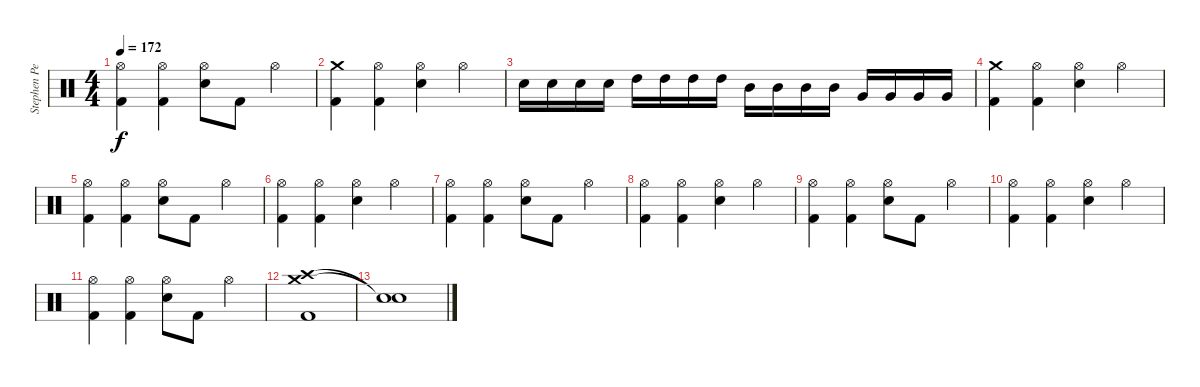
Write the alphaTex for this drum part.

\track ("Stephen Perkins" "Stephen Pe") {instrument percussion}
\staff {score}
\articulation defaults
\ts (4 4)
\tempo 172
\clef neutral
\ks c
("Hi-Hat (open)" "Kick (hit) 2").4{dy f} ("Hi-Hat (open)" "Kick (hit) 2").4 ("Hi-Hat (open)" "Snare (hit) 2").8 "Kick (hit) 2".8 "Hi-Hat (open)".4 |
("Crash medium (hit)" "Kick (hit) 2").4 ("Hi-Hat (open)" "Kick (hit) 2").4 ("Hi-Hat (open)" "Snare (hit) 2").4 "Hi-Hat (open)".4 |
"Snare (hit) 2".16 "Snare (hit) 2".16 "Snare (hit) 2".16 "Snare (hit) 2".16 "High Tom (hit)".16 "High Tom (hit)".16 "High Tom (hit)".16 "High Tom (hit)".16 "Mid Tom (hit)".16 "Mid Tom (hit)".16 "Mid Tom (hit)".16 "Mid Tom (hit)".16 "Very Low Tom (hit)".16 "Very Low Tom (hit)".16 "Very Low Tom (hit)".16 "Very Low Tom (hit)".16 |
("Crash medium (hit)" "Kick (hit) 2").4 ("Hi-Hat (open)" "Kick (hit) 2").4 ("Hi-Hat (open)" "Snare (hit) 2").4 "Hi-Hat (open)".4 |
("Hi-Hat (open)" "Kick (hit) 2").4 ("Hi-Hat (open)" "Kick (hit) 2").4 ("Hi-Hat (open)" "Snare (hit) 2").8 "Kick (hit) 2".8 "Hi-Hat (open)".4 |
("Hi-Hat (open)" "Kick (hit) 2").4 ("Hi-Hat (open)" "Kick (hit) 2").4 ("Hi-Hat (open)" "Snare (hit) 2").4 "Hi-Hat (open)".4 |
("Hi-Hat (open)" "Kick (hit) 2").4 ("Hi-Hat (open)" "Kick (hit) 2").4 ("Hi-Hat (open)" "Snare (hit) 2").8 "Kick (hit) 2".8 "Hi-Hat (open)".4 |
("Hi-Hat (open)" "Kick (hit) 2").4 ("Hi-Hat (open)" "Kick (hit) 2").4 ("Hi-Hat (open)" "Snare (hit) 2").4 "Hi-Hat (open)".4 |
("Hi-Hat (open)" "Kick (hit) 2").4 ("Hi-Hat (open)" "Kick (hit) 2").4 ("Hi-Hat (open)" "Snare (hit) 2").8 "Kick (hit) 2".8 "Hi-Hat (open)".4 |
("Hi-Hat (open)" "Kick (hit) 2").4 ("Hi-Hat (open)" "Kick (hit) 2").4 ("Hi-Hat (open)" "Snare (hit) 2").4 "Hi-Hat (open)".4 |
("Hi-Hat (open)" "Kick (hit) 2").4 ("Hi-Hat (open)" "Kick (hit) 2").4 ("Hi-Hat (open)" "Snare (hit) 2").8 "Kick (hit) 2".8 "Hi-Hat (open)".4 |
("Crash medium (hit)" "Crash high (hit)" "Kick (hit) 2").1 |
("Snare (hit)"{t} "Snare (hit)"{t}).1
